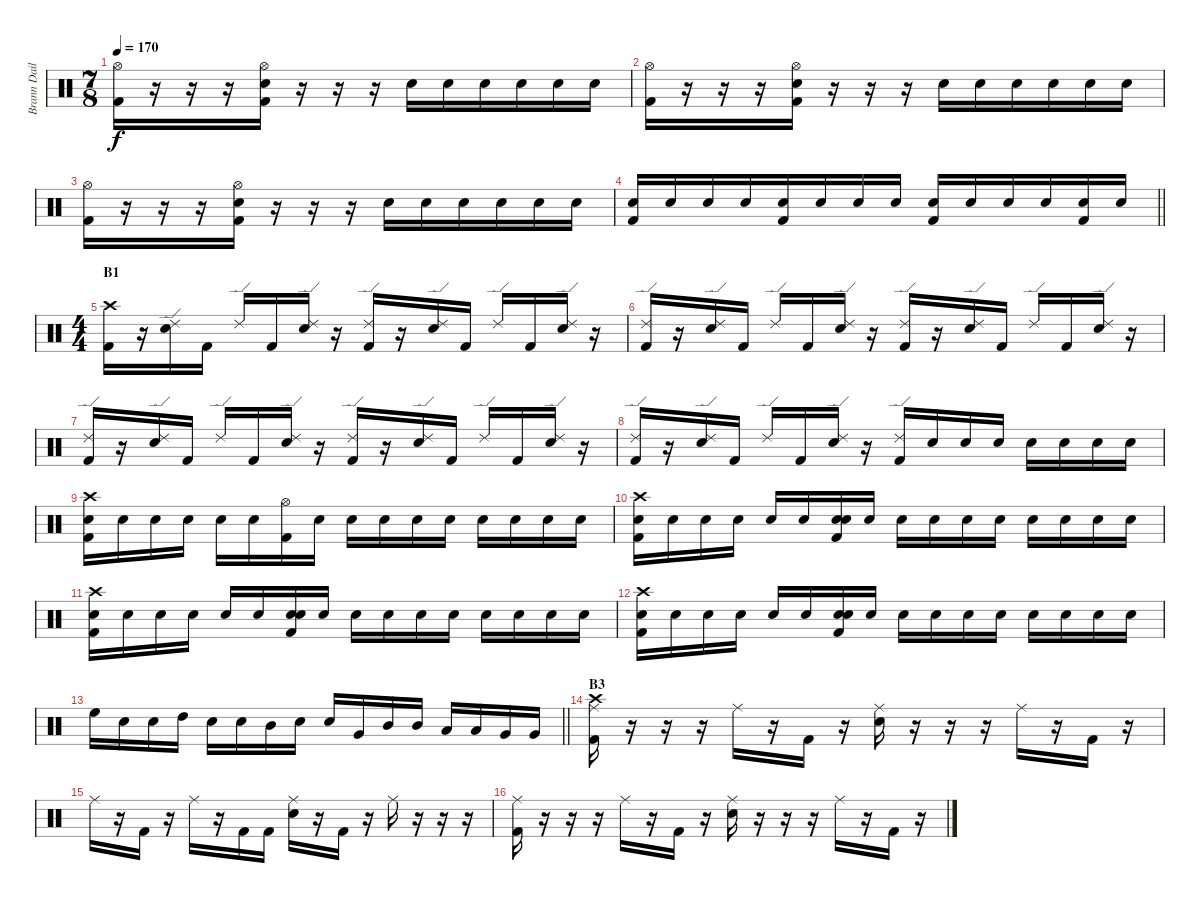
\track ("Brann Dailor" "Brann Dail") {instrument percussion}
\staff {score}
\articulation defaults
\ts (7 8)
\tempo 170
\clef neutral
\ks c
("Hi-Hat (open)" "Kick (hit) 2").16{dy f} r.16 r.16 r.16 ("Hi-Hat (open)" "Electric Snare (hit)" "Kick (hit) 2").16 r.16 r.16 r.16 "Electric Snare (hit)".16 "Electric Snare (hit)".16 "Electric Snare (hit)".16 "Electric Snare (hit)".16 "Electric Snare (hit)".16 "Electric Snare (hit)".16 |
("Hi-Hat (open)" "Kick (hit) 2").16 r.16 r.16 r.16 ("Hi-Hat (open)" "Electric Snare (hit)" "Kick (hit) 2").16 r.16 r.16 r.16 "Electric Snare (hit)".16 "Electric Snare (hit)".16 "Electric Snare (hit)".16 "Electric Snare (hit)".16 "Electric Snare (hit)".16 "Electric Snare (hit)".16 |
("Hi-Hat (open)" "Kick (hit) 2").16 r.16 r.16 r.16 ("Hi-Hat (open)" "Electric Snare (hit)" "Kick (hit) 2").16 r.16 r.16 r.16 "Electric Snare (hit)".16 "Electric Snare (hit)".16 "Electric Snare (hit)".16 "Electric Snare (hit)".16 "Electric Snare (hit)".16 "Electric Snare (hit)".16 |
\barLineRight lightlight
("Electric Snare (hit)" "Kick (hit) 2").16 "Electric Snare (hit)".16 "Electric Snare (hit)".16 "Electric Snare (hit)".16 ("Electric Snare (hit)" "Kick (hit) 2").16 "Electric Snare (hit)".16 "Electric Snare (hit)".16 "Electric Snare (hit)".16 ("Electric Snare (hit)" "Kick (hit) 2").16 "Electric Snare (hit)".16 "Electric Snare (hit)".16 "Electric Snare (hit)".16 ("Electric Snare (hit)" "Kick (hit) 2").16 "Electric Snare (hit)".16 |
\ts (4 4)
\section ("" "B1")
("Crash high (hit)" "Kick (hit) 2").16 r.16 ("Ride (edge) 2" "Electric Snare (hit)").16 "Kick (hit) 2".16 "Ride (edge) 2".16 "Kick (hit) 2".16 ("Ride (edge) 2" "Electric Snare (hit)").16 r.16 ("Ride (edge) 2" "Kick (hit) 2").16 r.16 ("Ride (edge) 2" "Electric Snare (hit)").16 "Kick (hit) 2".16 "Ride (edge) 2".16 "Kick (hit) 2".16 ("Ride (edge) 2" "Electric Snare (hit)").16 r.16 |
("Ride (edge) 2" "Kick (hit) 2").16 r.16 ("Ride (edge) 2" "Electric Snare (hit)").16 "Kick (hit) 2".16 "Ride (edge) 2".16 "Kick (hit) 2".16 ("Ride (edge) 2" "Electric Snare (hit)").16 r.16 ("Ride (edge) 2" "Kick (hit) 2").16 r.16 ("Ride (edge) 2" "Electric Snare (hit)").16 "Kick (hit) 2".16 "Ride (edge) 2".16 "Kick (hit) 2".16 ("Ride (edge) 2" "Electric Snare (hit)").16 r.16 |
("Ride (edge) 2" "Kick (hit) 2").16 r.16 ("Ride (edge) 2" "Electric Snare (hit)").16 "Kick (hit) 2".16 "Ride (edge) 2".16 "Kick (hit) 2".16 ("Ride (edge) 2" "Electric Snare (hit)").16 r.16 ("Ride (edge) 2" "Kick (hit) 2").16 r.16 ("Ride (edge) 2" "Electric Snare (hit)").16 "Kick (hit) 2".16 "Ride (edge) 2".16 "Kick (hit) 2".16 ("Ride (edge) 2" "Electric Snare (hit)").16 r.16 |
("Ride (edge) 2" "Kick (hit) 2").16 r.16 ("Ride (edge) 2" "Electric Snare (hit)").16 "Kick (hit) 2".16 "Ride (edge) 2".16 "Kick (hit) 2".16 ("Ride (edge) 2" "Electric Snare (hit)").16 r.16 ("Ride (edge) 2" "Kick (hit) 2").16 "Electric Snare (hit)".16 "Electric Snare (hit)".16 "Electric Snare (hit)".16 "Electric Snare (hit)".16 "Electric Snare (hit)".16 "Electric Snare (hit)".16 "Electric Snare (hit)".16 |
("Crash high (hit)" "Electric Snare (hit)" "Kick (hit) 2").16 "Electric Snare (hit)".16 "Electric Snare (hit)".16 "Electric Snare (hit)".16 "Electric Snare (hit)".16 "Electric Snare (hit)".16 ("Hi-Hat (open)" "Kick (hit) 2").16 "Electric Snare (hit)".16 "Electric Snare (hit)".16 "Electric Snare (hit)".16 "Electric Snare (hit)".16 "Electric Snare (hit)".16 "Electric Snare (hit)".16 "Electric Snare (hit)".16 "Electric Snare (hit)".16 "Electric Snare (hit)".16 |
("Crash high (hit)" "Electric Snare (hit)" "Kick (hit) 2").16 "Electric Snare (hit)".16 "Electric Snare (hit)".16 "Electric Snare (hit)".16 "Electric Snare (hit)".16 "Electric Snare (hit)".16 ("Electric Snare (hit)" "Electric Snare (hit)" "Kick (hit) 2").16 "Electric Snare (hit)".16 "Electric Snare (hit)".16 "Electric Snare (hit)".16 "Electric Snare (hit)".16 "Electric Snare (hit)".16 "Electric Snare (hit)".16 "Electric Snare (hit)".16 "Electric Snare (hit)".16 "Electric Snare (hit)".16 |
("Crash high (hit)" "Electric Snare (hit)" "Kick (hit) 2").16 "Electric Snare (hit)".16 "Electric Snare (hit)".16 "Electric Snare (hit)".16 "Electric Snare (hit)".16 "Electric Snare (hit)".16 ("Electric Snare (hit)" "Electric Snare (hit)" "Kick (hit) 2").16 "Electric Snare (hit)".16 "Electric Snare (hit)".16 "Electric Snare (hit)".16 "Electric Snare (hit)".16 "Electric Snare (hit)".16 "Electric Snare (hit)".16 "Electric Snare (hit)".16 "Electric Snare (hit)".16 "Electric Snare (hit)".16 |
("Crash high (hit)" "Electric Snare (hit)" "Kick (hit) 2").16 "Electric Snare (hit)".16 "Electric Snare (hit)".16 "Electric Snare (hit)".16 "Electric Snare (hit)".16 "Electric Snare (hit)".16 ("Electric Snare (hit)" "Electric Snare (hit)" "Kick (hit) 2").16 "Electric Snare (hit)".16 "Electric Snare (hit)".16 "Electric Snare (hit)".16 "Electric Snare (hit)".16 "Electric Snare (hit)".16 "Electric Snare (hit)".16 "Electric Snare (hit)".16 "Electric Snare (hit)".16 "Electric Snare (hit)".16 |
\barLineRight lightlight "High Floor Tom (hit)".16 "Electric Snare (hit)".16 "Electric Snare (hit)".16 "High Tom (hit)".16 "Electric Snare (hit)".16 "Electric Snare (hit)".16 "Mid Tom (hit)".16 "Electric Snare (hit)".16 "Electric Snare (hit)".16 "Very Low Tom (hit)".16 "Mid Tom (hit)".16 "Mid Tom (hit)".16 "Low Tom (hit)".16 "Low Tom (hit)".16 "Very Low Tom (hit)".16 "Very Low Tom (hit)".16
|
\section ("" "B3")
("Crash high (hit)" "Ride (middle)" "Kick (hit) 2").16 r.16 r.16 r.16 "Ride (middle)".16 r.16 "Kick (hit) 2".16 r.16 ("Ride (middle)" "Electric Snare (hit)").16 r.16 r.16 r.16 "Ride (middle)".16 r.16 "Kick (hit) 2".16 r.16 |
"Ride (middle)".16 r.16 "Kick (hit) 2".16 r.16 "Ride (middle)".16 r.16 "Kick (hit) 2".16 "Kick (hit) 2".16 ("Ride (middle)" "Electric Snare (hit)").16 r.16 "Kick (hit) 2".16 r.16 "Ride (middle)".16 r.16 r.16 r.16 |
("Ride (middle)" "Kick (hit) 2").16 r.16 r.16 r.16 "Ride (middle)".16 r.16 "Kick (hit) 2".16 r.16 ("Ride (middle)" "Electric Snare (hit)").16 r.16 r.16 r.16 "Ride (middle)".16 r.16 "Kick (hit) 2".16 r.16
